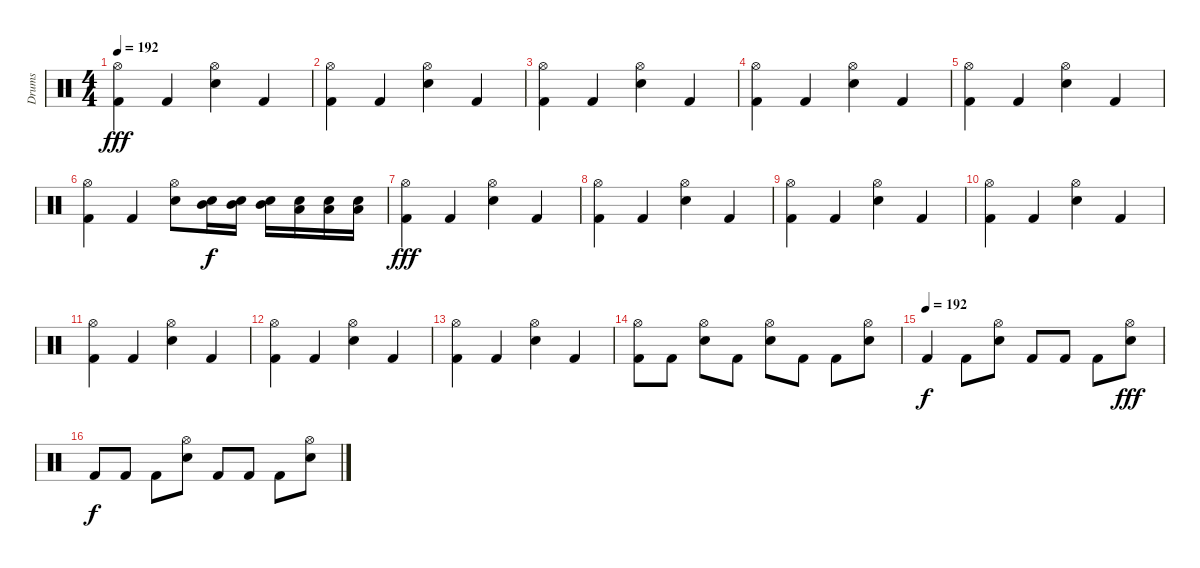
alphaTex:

\track ("Drums" "Drums") {instrument percussion}
\staff {score}
\articulation defaults
\ts (4 4)
\tempo 192
\clef neutral
\ks c
("Hi-Hat (open)" "Kick (hit) 2").4{dy fff} "Kick (hit) 2".4 ("Hi-Hat (open)" "Electric Snare (hit)").4 "Kick (hit) 2".4 |
("Hi-Hat (open)" "Kick (hit) 2").4 "Kick (hit) 2".4 ("Hi-Hat (open)" "Electric Snare (hit)").4 "Kick (hit) 2".4 |
("Hi-Hat (open)" "Kick (hit) 2").4 "Kick (hit) 2".4 ("Hi-Hat (open)" "Electric Snare (hit)").4 "Kick (hit) 2".4 |
("Hi-Hat (open)" "Kick (hit) 2").4 "Kick (hit) 2".4 ("Hi-Hat (open)" "Electric Snare (hit)").4 "Kick (hit) 2".4 |
("Hi-Hat (open)" "Kick (hit) 2").4 "Kick (hit) 2".4 ("Hi-Hat (open)" "Electric Snare (hit)").4 "Kick (hit) 2".4 |
("Hi-Hat (open)" "Kick (hit) 2").4 "Kick (hit) 2".4 ("Electric Snare (hit)" "Hi-Hat (open)").8 ("Electric Snare (hit)" "Mid Tom (hit)").16{dy f} ("Electric Snare (hit)" "Mid Tom (hit)").16 ("Electric Snare (hit)" "Mid Tom (hit)").16 ("Electric Snare (hit)" "Low Tom (hit)").16 ("Electric Snare (hit)" "Low Tom (hit)").16 ("Electric Snare (hit)" "Low Tom (hit)").16 |
("Hi-Hat (open)" "Kick (hit) 2").4{dy fff} "Kick (hit) 2".4 ("Hi-Hat (open)" "Electric Snare (hit)").4 "Kick (hit) 2".4 |
("Hi-Hat (open)" "Kick (hit) 2").4 "Kick (hit) 2".4 ("Hi-Hat (open)" "Electric Snare (hit)").4 "Kick (hit) 2".4 |
("Hi-Hat (open)" "Kick (hit) 2").4 "Kick (hit) 2".4 ("Hi-Hat (open)" "Electric Snare (hit)").4 "Kick (hit) 2".4 |
("Hi-Hat (open)" "Kick (hit) 2").4 "Kick (hit) 2".4 ("Hi-Hat (open)" "Electric Snare (hit)").4 "Kick (hit) 2".4 |
("Hi-Hat (open)" "Kick (hit) 2").4 "Kick (hit) 2".4 ("Hi-Hat (open)" "Electric Snare (hit)").4 "Kick (hit) 2".4 |
("Hi-Hat (open)" "Kick (hit) 2").4 "Kick (hit) 2".4 ("Hi-Hat (open)" "Electric Snare (hit)").4 "Kick (hit) 2".4 |
("Hi-Hat (open)" "Kick (hit) 2").4 "Kick (hit) 2".4 ("Hi-Hat (open)" "Electric Snare (hit)").4 "Kick (hit) 2".4 |
("Hi-Hat (open)" "Kick (hit) 2").8 "Kick (hit) 2".8 ("Hi-Hat (open)" "Electric Snare (hit)").8 "Kick (hit) 2".8 ("Hi-Hat (open)" "Electric Snare (hit)").8 "Kick (hit) 2".8 "Kick (hit) 2".8 ("Hi-Hat (open)" "Electric Snare (hit)").8 |
\tempo (192)
"Kick (hit) 2".4{dy f} "Kick (hit) 2".8 ("Electric Snare (hit)" "Hi-Hat (open)").8 "Kick (hit) 2".8 "Kick (hit) 2".8 "Kick (hit) 2".8 ("Electric Snare (hit)" "Hi-Hat (open)").8{dy fff} |
"Kick (hit) 2".8{dy f} "Kick (hit) 2".8 "Kick (hit) 2".8 ("Electric Snare (hit)" "Hi-Hat (open)").8 "Kick (hit) 2".8 "Kick (hit) 2".8 "Kick (hit) 2".8 ("Electric Snare (hit)" "Hi-Hat (open)").8
